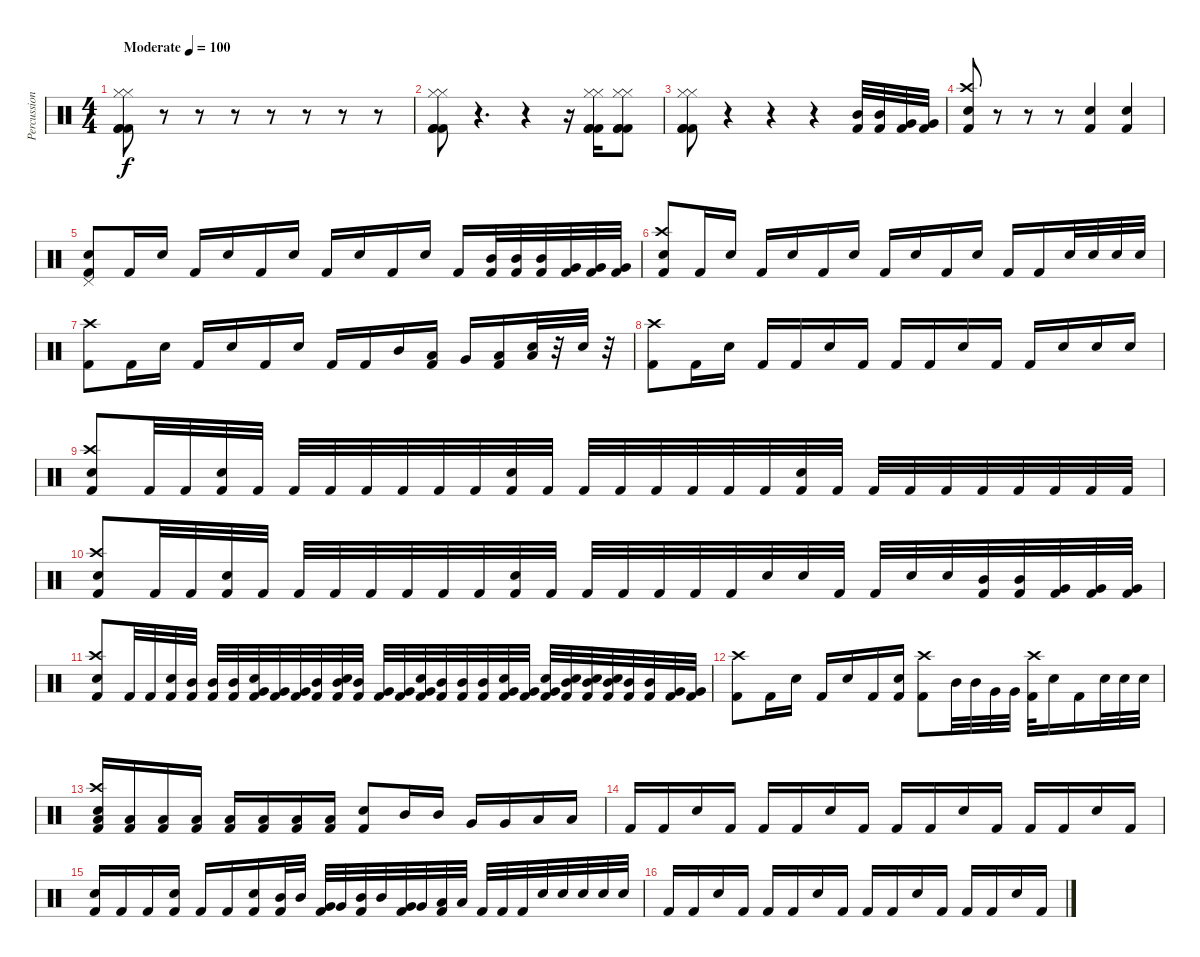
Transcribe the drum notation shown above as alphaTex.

\track ("Percussion" "Percussion") {instrument percussion}
\staff {score}
\articulation defaults
\ts (4 4)
\tempo (100 "Moderate")
\clef neutral
\ks c
("Hi-Hat (closed)" "Hi-Hat (closed)" "Kick (hit) 2" "Kick (hit) 2" "Kick (hit) 2").8{dy f} r.8 r.8 r.8 r.8 r.8 r.8 r.8 |
("Hi-Hat (closed)" "Hi-Hat (closed)" "Kick (hit) 2" "Kick (hit) 2" "Kick (hit) 2").8 r.4{d} r.4 r.16 ("Hi-Hat (closed)" "Hi-Hat (closed)" "Kick (hit) 2" "Kick (hit) 2" "Kick (hit) 2").16 ("Hi-Hat (closed)" "Hi-Hat (closed)" "Kick (hit) 2" "Kick (hit) 2" "Kick (hit) 2").8 |
("Hi-Hat (closed)" "Hi-Hat (closed)" "Kick (hit) 2" "Kick (hit) 2" "Kick (hit) 2").8 r.4 r.4 r.4 ("Mid Tom (hit)" "Kick (hit) 2").32 ("Mid Tom (hit)" "Kick (hit) 2").32 ("Very Low Tom (hit)" "Kick (hit) 2").32 ("Very Low Tom (hit)" "Kick (hit) 2").32 |
("Crash high (hit)" "Snare (hit) 2" "Kick (hit) 2").8 r.8 r.8 r.8 ("Snare (hit) 2" "Kick (hit) 2").4 ("Snare (hit) 2" "Kick (hit) 2").4 |
("Pedal Hi-Hat (hit)" "Snare (hit) 2" "Kick (hit) 2").8 "Kick (hit) 2".16 "Snare (hit) 2".16 "Kick (hit) 2".16 "Snare (hit) 2".16 "Kick (hit) 2".16 "Snare (hit) 2".16 "Kick (hit) 2".16 "Snare (hit) 2".16 "Kick (hit) 2".16 "Snare (hit) 2".16 "Kick (hit) 2".16 ("Mid Tom (hit)" "Kick (hit) 2").32 ("Mid Tom (hit)" "Kick (hit) 2").32 ("Mid Tom (hit)" "Kick (hit) 2").32 ("Very Low Tom (hit)" "Kick (hit) 2").32 ("Very Low Tom (hit)" "Kick (hit) 2").32 ("Very Low Tom (hit)" "Kick (hit) 2").32 |
("Crash high (hit)" "Snare (hit) 2" "Kick (hit) 2").8 "Kick (hit) 2".16 "Snare (hit) 2".16 "Kick (hit) 2".16 "Snare (hit) 2".16 "Kick (hit) 2".16 "Snare (hit) 2".16 "Kick (hit) 2".16 "Snare (hit) 2".16 "Kick (hit) 2".16 "Snare (hit) 2".16 "Kick (hit) 2".16 "Kick (hit) 2".16 "Snare (hit) 2".32 "Snare (hit) 2".32 "Snare (hit) 2".32 "Snare (hit) 2".32 |
("Crash high (hit)" "Kick (hit) 2").8 "Kick (hit) 2".16 "Snare (hit) 2".16 "Kick (hit) 2".16 "Snare (hit) 2".16 "Kick (hit) 2".16 "Snare (hit) 2".16 "Kick (hit) 2".16 "Kick (hit) 2".16 "Mid Tom (hit)".16 ("Low Tom (hit)" "Kick (hit) 2").16 "Very Low Tom (hit)".16 ("Low Floor Tom (hit)" "Kick (hit) 2").16 ("Low Floor Tom (hit)" "Snare (hit) 2").32 r.32 "Snare (hit) 2".32 r.32 |
("Crash high (hit)" "Kick (hit) 2").8 "Kick (hit) 2".16 "Snare (hit) 2".16 "Kick (hit) 2".16 "Kick (hit) 2".16 "Snare (hit) 2".16 "Kick (hit) 2".16 "Kick (hit) 2".16 "Kick (hit) 2".16 "Snare (hit) 2".16 "Kick (hit) 2".16 "Kick (hit) 2".16 "Snare (hit) 2".16 "Snare (hit) 2".16 "Snare (hit) 2".16 |
("Crash high (hit)" "Snare (hit) 2" "Kick (hit) 2").8 "Kick (hit) 2".32 "Kick (hit) 2".32 ("Snare (hit) 2" "Kick (hit) 2").32 "Kick (hit) 2".32 "Kick (hit) 2".32 "Kick (hit) 2".32 "Kick (hit) 2".32 "Kick (hit) 2".32 "Kick (hit) 2".32 "Kick (hit) 2".32 ("Snare (hit) 2" "Kick (hit) 2").32 "Kick (hit) 2".32 "Kick (hit) 2".32 "Kick (hit) 2".32 "Kick (hit) 2".32 "Kick (hit) 2".32 "Kick (hit) 2".32 "Kick (hit) 2".32 ("Snare (hit) 2" "Kick (hit) 2").32 "Kick (hit) 2".32 "Kick (hit) 2".32 "Kick (hit) 2".32 "Kick (hit) 2".32 "Kick (hit) 2".32 "Kick (hit) 2".32 "Kick (hit) 2".32 "Kick (hit) 2".32 "Kick (hit) 2".32 |
("Crash high (hit)" "Snare (hit) 2" "Kick (hit) 2").8 "Kick (hit) 2".32 "Kick (hit) 2".32 ("Snare (hit) 2" "Kick (hit) 2").32 "Kick (hit) 2".32 "Kick (hit) 2".32 "Kick (hit) 2".32 "Kick (hit) 2".32 "Kick (hit) 2".32 "Kick (hit) 2".32 "Kick (hit) 2".32 ("Snare (hit) 2" "Kick (hit) 2").32 "Kick (hit) 2".32 "Kick (hit) 2".32 "Kick (hit) 2".32 "Kick (hit) 2".32 "Kick (hit) 2".32 "Kick (hit) 2".32 "Snare (hit) 2".32 "Snare (hit) 2".32 "Kick (hit) 2".32 "Kick (hit) 2".32 "Snare (hit) 2".32 "Snare (hit) 2".32 ("Mid Tom (hit)" "Kick (hit) 2").32 ("Mid Tom (hit)" "Kick (hit) 2").32 ("Very Low Tom (hit)" "Kick (hit) 2").32 ("Very Low Tom (hit)" "Kick (hit) 2").32 ("Very Low Tom (hit)" "Kick (hit) 2").32 |
("Crash high (hit)" "Snare (hit) 2" "Kick (hit) 2").8 "Kick (hit) 2".32 "Kick (hit) 2".32 ("Snare (hit) 2" "Kick (hit) 2").32 ("Mid Tom (hit)" "Kick (hit) 2").32 ("Mid Tom (hit)" "Kick (hit) 2").32 ("Mid Tom (hit)" "Kick (hit) 2").32 ("Very Low Tom (hit)" "Snare (hit) 2" "Kick (hit) 2").32 ("Very Low Tom (hit)" "Kick (hit) 2").32 ("Very Low Tom (hit)" "Kick (hit) 2").32 ("Mid Tom (hit)" "Kick (hit) 2").32 ("Mid Tom (hit)" "Snare (hit) 2" "Kick (hit) 2").32 ("Mid Tom (hit)" "Kick (hit) 2").32 ("Very Low Tom (hit)" "Kick (hit) 2").32 ("Very Low Tom (hit)" "Kick (hit) 2").32 ("Very Low Tom (hit)" "Snare (hit) 2" "Kick (hit) 2").32 ("Mid Tom (hit)" "Kick (hit) 2").32 ("Mid Tom (hit)" "Kick (hit) 2").32 ("Mid Tom (hit)" "Kick (hit) 2").32 ("Very Low Tom (hit)" "Snare (hit) 2" "Kick (hit) 2").32 ("Very Low Tom (hit)" "Kick (hit) 2").32 ("Very Low Tom (hit)" "Snare (hit) 2" "Kick (hit) 2").32 ("Mid Tom (hit)" "Snare (hit) 2" "Kick (hit) 2").32 ("Mid Tom (hit)" "Snare (hit) 2" "Kick (hit) 2").32 ("Mid Tom (hit)" "Snare (hit) 2" "Kick (hit) 2").32 ("Mid Tom (hit)" "Kick (hit) 2").32 ("Mid Tom (hit)" "Kick (hit) 2").32 ("Very Low Tom (hit)" "Kick (hit) 2").32 ("Very Low Tom (hit)" "Kick (hit) 2").32 |
("Crash high (hit)" "Kick (hit) 2").8 "Kick (hit) 2".16 "Snare (hit) 2".16 "Kick (hit) 2".16 "Snare (hit) 2".16 "Kick (hit) 2".16 ("Snare (hit) 2" "Kick (hit) 2").16 ("Crash high (hit)" "Kick (hit) 2").8 "Mid Tom (hit)".32 "Mid Tom (hit)".32 "Very Low Tom (hit)".32 "Very Low Tom (hit)".32 ("Crash high (hit)" "Kick (hit) 2").32 "Snare (hit) 2".16 "Kick (hit) 2".16 "Snare (hit) 2".32 "Snare (hit) 2".32 "Snare (hit) 2".32 |
("Crash high (hit)" "Snare (hit) 2" "Low Floor Tom (hit)" "Kick (hit) 2").16 ("Low Floor Tom (hit)" "Kick (hit) 2").16 ("Low Floor Tom (hit)" "Kick (hit) 2").16 ("Low Floor Tom (hit)" "Kick (hit) 2").16 ("Low Floor Tom (hit)" "Kick (hit) 2").16 ("Low Floor Tom (hit)" "Kick (hit) 2").16 ("Low Floor Tom (hit)" "Kick (hit) 2").16 ("Low Floor Tom (hit)" "Kick (hit) 2").16 ("Snare (hit) 2" "Kick (hit) 2").8 "Mid Tom (hit)".16 "Mid Tom (hit)".16 "Very Low Tom (hit)".16 "Very Low Tom (hit)".16 "Low Floor Tom (hit)".16 "Low Floor Tom (hit)".16 |
"Kick (hit) 2".16 "Kick (hit) 2".16 "Snare (hit) 2".16 "Kick (hit) 2".16 "Kick (hit) 2".16 "Kick (hit) 2".16 "Snare (hit) 2".16 "Kick (hit) 2".16 "Kick (hit) 2".16 "Kick (hit) 2".16 "Snare (hit) 2".16 "Kick (hit) 2".16 "Kick (hit) 2".16 "Kick (hit) 2".16 "Snare (hit) 2".16 "Kick (hit) 2".16 |
("Snare (hit) 2" "Kick (hit) 2").16 "Kick (hit) 2".16 "Kick (hit) 2".16 ("Snare (hit) 2" "Kick (hit) 2").16 "Kick (hit) 2".16 "Kick (hit) 2".16 ("Snare (hit) 2" "Kick (hit) 2").16 ("Mid Tom (hit)" "Kick (hit) 2").32 "Mid Tom (hit)".32 ("Very Low Tom (hit)" "Kick (hit) 2").32 "Very Low Tom (hit)".32 ("Mid Tom (hit)" "Kick (hit) 2").32 "Mid Tom (hit)".32 ("Very Low Tom (hit)" "Kick (hit) 2").32 "Very Low Tom (hit)".32 ("Low Floor Tom (hit)" "Kick (hit) 2").32 "Low Floor Tom (hit)".32 "Kick (hit) 2".32 "Kick (hit) 2".32 "Kick (hit) 2".32 "Snare (hit) 2".32 "Snare (hit) 2".32 "Snare (hit) 2".32 "Snare (hit) 2".32 "Snare (hit) 2".32 |
"Kick (hit) 2".16 "Kick (hit) 2".16 "Snare (hit) 2".16 "Kick (hit) 2".16 "Kick (hit) 2".16 "Kick (hit) 2".16 "Snare (hit) 2".16 "Kick (hit) 2".16 "Kick (hit) 2".16 "Kick (hit) 2".16 "Snare (hit) 2".16 "Kick (hit) 2".16 "Kick (hit) 2".16 "Kick (hit) 2".16 "Snare (hit) 2".16 "Kick (hit) 2".16
